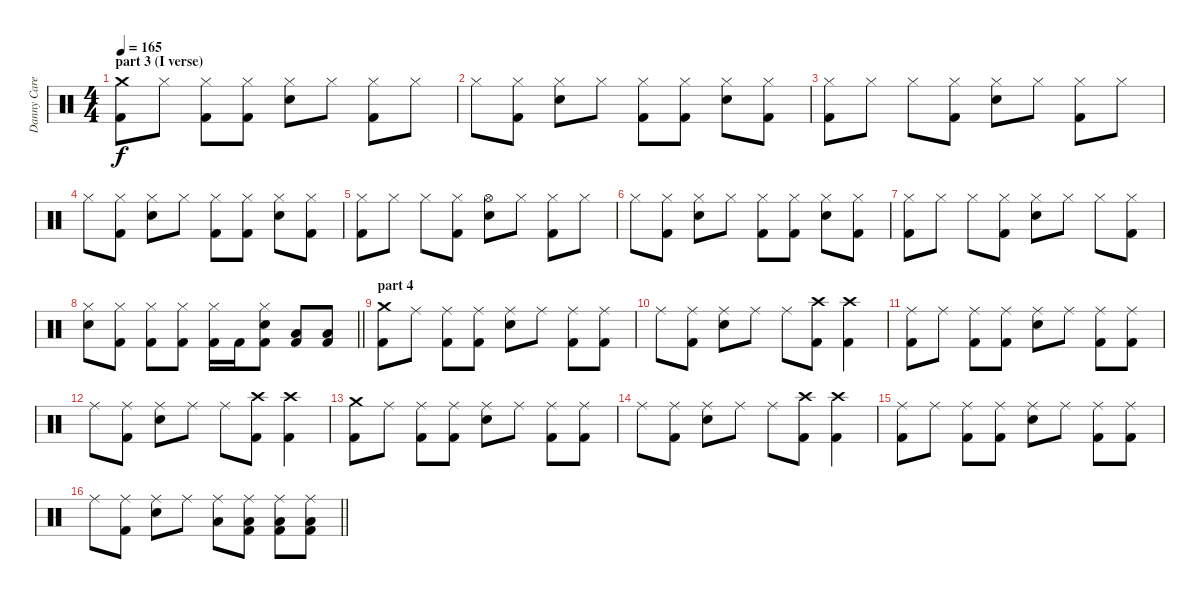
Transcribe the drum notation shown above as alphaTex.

\track ("Danny Carey / drums" "Danny Care") {instrument percussion}
\staff {score}
\articulation defaults
\ts (4 4)
\section ("" "part 3 (I verse)")
\tempo 165
\clef neutral
\ks c
("Crash medium (hit)" "Kick (hit) 2").8{dy f} "Hi-Hat (closed)".8 ("Hi-Hat (closed)" "Kick (hit) 2").8 ("Hi-Hat (closed)" "Kick (hit) 2").8 ("Hi-Hat (closed)" "Electric Snare (hit)").8 "Hi-Hat (closed)".8 ("Hi-Hat (closed)" "Kick (hit) 2").8 "Hi-Hat (closed)".8 |
"Hi-Hat (closed)".8 ("Hi-Hat (closed)" "Kick (hit) 2").8 ("Hi-Hat (closed)" "Electric Snare (hit)").8 "Hi-Hat (closed)".8 ("Hi-Hat (closed)" "Kick (hit) 2").8 ("Hi-Hat (closed)" "Kick (hit) 2").8 ("Hi-Hat (closed)" "Electric Snare (hit)").8 ("Hi-Hat (closed)" "Kick (hit) 2").8 |
("Hi-Hat (closed)" "Kick (hit) 2").8 "Hi-Hat (closed)".8 "Hi-Hat (closed)".8 ("Hi-Hat (closed)" "Kick (hit) 2").8 ("Hi-Hat (closed)" "Electric Snare (hit)").8 "Hi-Hat (closed)".8 ("Hi-Hat (closed)" "Kick (hit) 2").8 "Hi-Hat (closed)".8 |
"Hi-Hat (closed)".8 ("Hi-Hat (closed)" "Kick (hit) 2").8 ("Hi-Hat (closed)" "Electric Snare (hit)").8 "Hi-Hat (closed)".8 ("Hi-Hat (closed)" "Kick (hit) 2").8 ("Hi-Hat (closed)" "Kick (hit) 2").8 ("Hi-Hat (closed)" "Electric Snare (hit)").8 ("Hi-Hat (closed)" "Kick (hit) 2").8 |
("Hi-Hat (closed)" "Kick (hit) 2").8 "Hi-Hat (closed)".8 "Hi-Hat (closed)".8 ("Hi-Hat (closed)" "Kick (hit) 2").8 ("Hi-Hat (open)" "Electric Snare (hit)").8 "Hi-Hat (closed)".8 ("Hi-Hat (closed)" "Kick (hit) 2").8 "Hi-Hat (closed)".8 |
"Hi-Hat (closed)".8 ("Hi-Hat (closed)" "Kick (hit) 2").8 ("Hi-Hat (closed)" "Electric Snare (hit)").8 "Hi-Hat (closed)".8 ("Hi-Hat (closed)" "Kick (hit) 2").8 ("Hi-Hat (closed)" "Kick (hit) 2").8 ("Hi-Hat (closed)" "Electric Snare (hit)").8 ("Hi-Hat (closed)" "Kick (hit) 2").8 |
("Hi-Hat (closed)" "Kick (hit) 2").8 "Hi-Hat (closed)".8 "Hi-Hat (closed)".8 ("Hi-Hat (closed)" "Kick (hit) 2").8 ("Hi-Hat (closed)" "Electric Snare (hit)").8 "Hi-Hat (closed)".8 "Hi-Hat (closed)".8 ("Hi-Hat (closed)" "Kick (hit) 2").8 |
\barLineRight lightlight
("Hi-Hat (closed)" "Electric Snare (hit)").8 ("Hi-Hat (closed)" "Kick (hit) 2").8 ("Hi-Hat (closed)" "Kick (hit) 2").8 ("Hi-Hat (closed)" "Kick (hit) 2").8 ("Hi-Hat (closed)" "Kick (hit) 2").16 "Kick (hit) 2".16 ("Hi-Hat (closed)" "Electric Snare (hit)" "Kick (hit) 2").8 ("Low Floor Tom (hit)" "Kick (hit) 2").8 ("Low Floor Tom (hit)" "Kick (hit) 2").8 |
\section ("" "part 4")
("Crash medium (hit)" "Kick (hit) 2").8 "Ride (middle)".8 ("Ride (middle)" "Kick (hit) 2").8 ("Ride (middle)" "Kick (hit) 2").8 ("Ride (middle)" "Electric Snare (hit)").8 "Ride (middle)".8 ("Ride (middle)" "Kick (hit) 2").8 ("Ride (middle)" "Kick (hit) 2").8 |
"Ride (middle)".8 ("Ride (middle)" "Kick (hit) 2").8 ("Ride (middle)" "Electric Snare (hit)").8 "Ride (middle)".8 "Ride (middle)".8 ("Crash high (hit)" "Kick (hit) 2").8 ("Crash high (hit)" "Kick (hit) 2").4 |
("Ride (middle)" "Kick (hit) 2").8 "Ride (middle)".8 ("Ride (middle)" "Kick (hit) 2").8 ("Ride (middle)" "Kick (hit) 2").8 ("Ride (middle)" "Electric Snare (hit)").8 "Ride (middle)".8 ("Ride (middle)" "Kick (hit) 2").8 ("Ride (middle)" "Kick (hit) 2").8 |
"Ride (middle)".8 ("Ride (middle)" "Kick (hit) 2").8 ("Ride (middle)" "Electric Snare (hit)").8 "Ride (middle)".8 "Ride (middle)".8 ("Crash high (hit)" "Kick (hit) 2").8 ("Crash high (hit)" "Kick (hit) 2").4 |
("Crash medium (hit)" "Kick (hit) 2").8 "Ride (middle)".8 ("Ride (middle)" "Kick (hit) 2").8 ("Ride (middle)" "Kick (hit) 2").8 ("Ride (middle)" "Electric Snare (hit)").8 "Ride (middle)".8 ("Ride (middle)" "Kick (hit) 2").8 ("Ride (middle)" "Kick (hit) 2").8 |
"Ride (middle)".8 ("Ride (middle)" "Kick (hit) 2").8 ("Ride (middle)" "Electric Snare (hit)").8 "Ride (middle)".8 "Ride (middle)".8 ("Crash high (hit)" "Kick (hit) 2").8 ("Crash high (hit)" "Kick (hit) 2").4 |
("Ride (middle)" "Kick (hit) 2").8 "Ride (middle)".8 ("Ride (middle)" "Kick (hit) 2").8 ("Ride (middle)" "Kick (hit) 2").8 ("Ride (middle)" "Electric Snare (hit)").8 "Ride (middle)".8 ("Ride (middle)" "Kick (hit) 2").8 ("Ride (middle)" "Kick (hit) 2").8 |
\barLineRight lightlight "Ride (middle)".8
("Ride (middle)" "Kick (hit) 2").8 ("Ride (middle)" "Electric Snare (hit)").8 "Ride (middle)".8 ("Ride (middle)" "Low Floor Tom (hit)").8 ("Ride (middle)" "Low Floor Tom (hit)" "Kick (hit) 2").8 ("Ride (middle)" "Low Floor Tom (hit)" "Kick (hit) 2").8 ("Ride (middle)" "Low Floor Tom (hit)" "Kick (hit) 2").8
